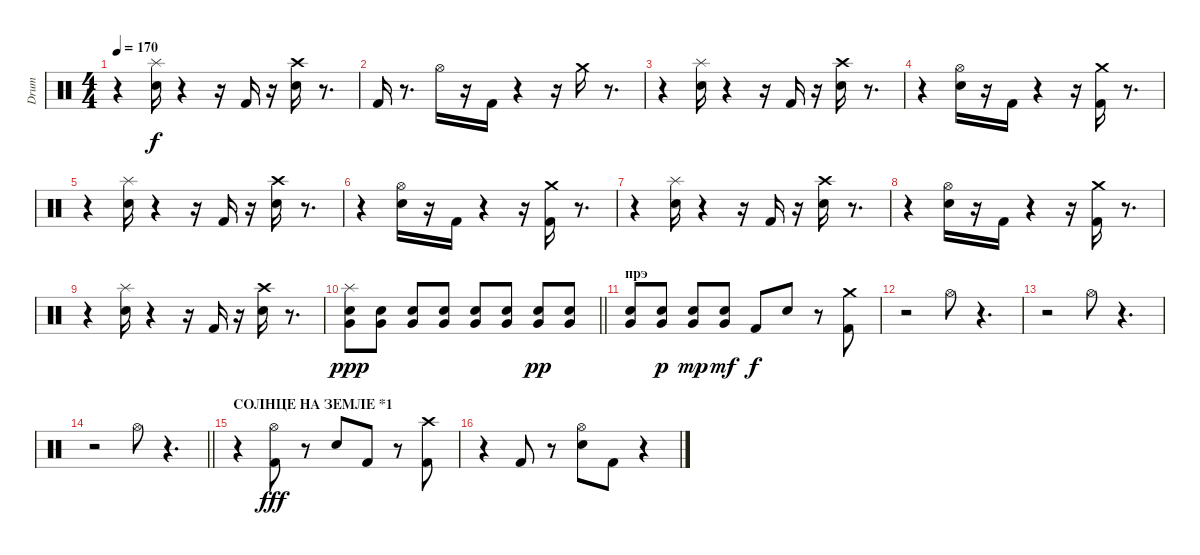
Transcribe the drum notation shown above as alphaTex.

\track ("Drum" "Drum") {instrument percussion}
\staff {score}
\articulation defaults
\ts (4 4)
\tempo 170
\clef neutral
\ks c
r.4{dy f} ("Splash (hit)" "Snare (hit) 2").16 r.4 r.16 "Kick (hit) 2".16 r.16 ("Crash high (hit)" "Snare (hit) 2").16 r.8{d} |
"Kick (hit) 2".16 r.8{d} "Hi-Hat (open)".16 r.16 "Kick (hit) 2".16 r.4 r.16 "Crash medium (hit)".16 r.8{d} |
r.4 ("Splash (hit)" "Snare (hit) 2").16 r.4 r.16 "Kick (hit) 2".16 r.16 ("Crash high (hit)" "Snare (hit) 2").16 r.8{d} |
r.4 ("Snare (hit) 2" "Hi-Hat (open)").16 r.16 "Kick (hit) 2".16 r.4 r.16 ("Kick (hit) 2" "Crash medium (hit)").16 r.8{d} |
r.4 ("Splash (hit)" "Snare (hit) 2").16 r.4 r.16 "Kick (hit) 2".16 r.16 ("Crash high (hit)" "Snare (hit) 2").16 r.8{d} |
r.4 ("Snare (hit) 2" "Hi-Hat (open)").16 r.16 "Kick (hit) 2".16 r.4 r.16 ("Kick (hit) 2" "Crash medium (hit)").16 r.8{d} |
r.4 ("Splash (hit)" "Snare (hit) 2").16 r.4 r.16 "Kick (hit) 2".16 r.16 ("Crash high (hit)" "Snare (hit) 2").16 r.8{d} |
r.4 ("Snare (hit) 2" "Hi-Hat (open)").16 r.16 "Kick (hit) 2".16 r.4 r.16 ("Kick (hit) 2" "Crash medium (hit)").16 r.8{d} |
r.4 ("Splash (hit)" "Snare (hit) 2").16 r.4 r.16 "Kick (hit) 2".16 r.16 ("Crash high (hit)" "Snare (hit) 2").16 r.8{d} |
\barLineRight lightlight
("Snare (hit) 2" "Very Low Tom (hit)" "Splash (hit)").8{dy ppp} ("Snare (hit) 2" "Very Low Tom (hit)").8 ("Snare (hit) 2" "Very Low Tom (hit)").8 ("Snare (hit) 2" "Very Low Tom (hit)").8 ("Snare (hit) 2" "Very Low Tom (hit)").8 ("Snare (hit) 2" "Very Low Tom (hit)").8 ("Snare (hit) 2" "Very Low Tom (hit)").8{dy pp} ("Snare (hit) 2" "Very Low Tom (hit)").8 |
\section ("" "прэ")
("Snare (hit) 2" "Very Low Tom (hit)").8 ("Snare (hit) 2" "Very Low Tom (hit)").8{dy p} ("Snare (hit) 2" "Very Low Tom (hit)").8{dy mp} ("Snare (hit) 2" "Very Low Tom (hit)").8{dy mf} "Kick (hit) 2".8{dy f} "Snare (hit) 2".8 r.8 ("Crash medium (hit)" "Kick (hit) 2").8 |
r.2 "Hi-Hat (open)".8 r.4{d} |
r.2 "Hi-Hat (open)".8 r.4{d} |
\barLineRight lightlight
r.2 "Hi-Hat (open)".8 r.4{d} |
\section ("" "СОЛНЦЕ НА ЗЕМЛЕ *1")
r.4 ("Hi-Hat (open)" "Kick (hit) 2").8{dy fff} r.8 "Snare (hit) 2".8 "Kick (hit) 2".8 r.8 ("Kick (hit) 2" "Crash high (hit)").8 |
r.4 "Kick (hit) 2".8 r.8 ("Snare (hit) 2" "Hi-Hat (open)").8 "Kick (hit) 2".8 r.4
